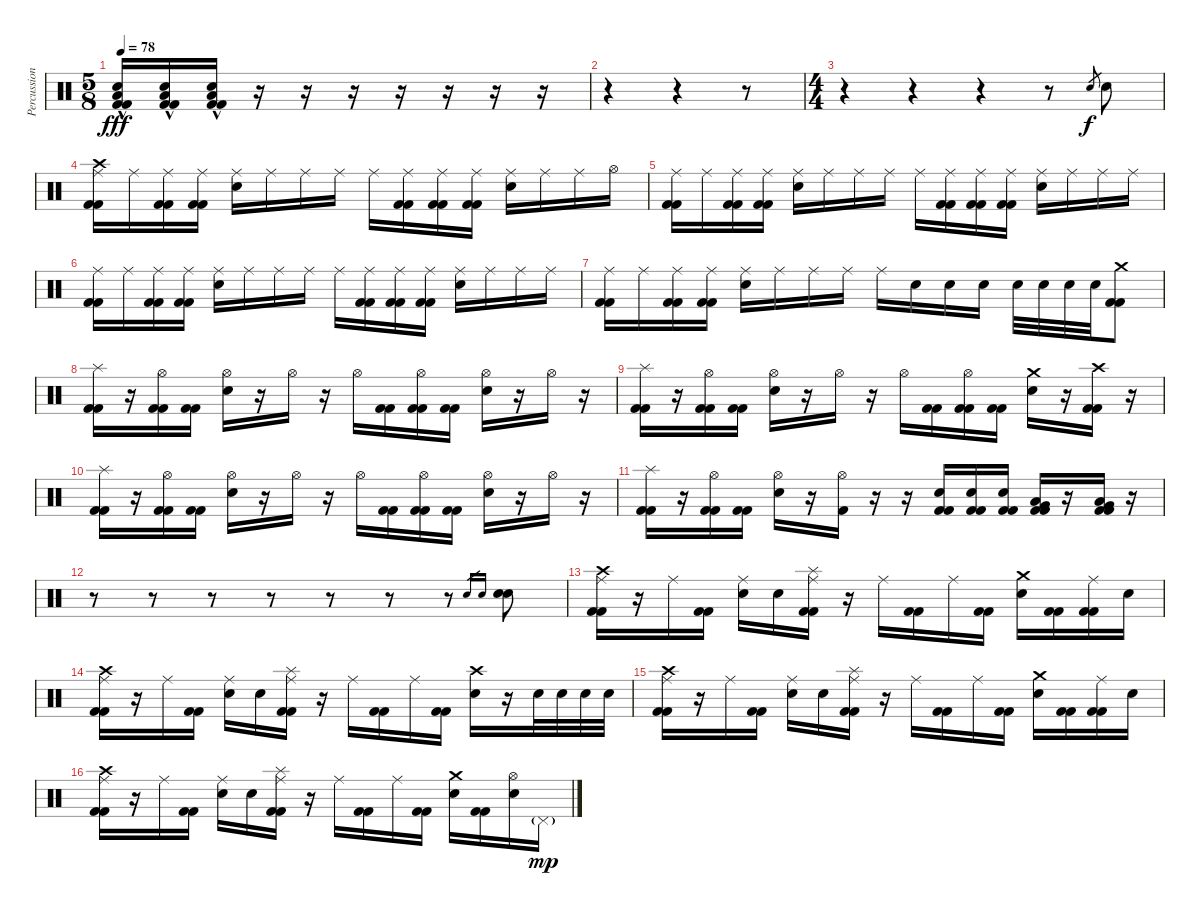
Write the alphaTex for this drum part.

\track ("Percussion" "Percussion") {instrument percussion}
\staff {score}
\articulation defaults
\ts (5 8)
\tempo 78
\clef neutral
\ks c
("Electric Snare (hit)" "Low Floor Tom (hit)" "Kick (hit) 2"{hac} "Kick (hit) 2"{hac}).16{dy fff} ("Electric Snare (hit)" "Low Floor Tom (hit)" "Kick (hit) 2"{hac} "Kick (hit) 2"{hac}).16 ("Electric Snare (hit)"{hac} "Low Floor Tom (hit)"{hac} "Kick (hit) 2"{hac} "Kick (hit) 2"{hac}).16 r.16 r.16 r.16 r.16 r.16 r.16 r.16 |
r.4 r.4 r.8 |
\ts (4 4)
r.4 r.4 r.4 r.8 "Electric Snare (hit)".8{gr dy f} "Electric Snare (hit)".8 |
("Crash high (hit)" "Ride (middle)" "Kick (hit) 2" "Kick (hit) 2").16 "Ride (middle)".16 ("Ride (middle)" "Kick (hit) 2" "Kick (hit) 2").16 ("Ride (middle)" "Kick (hit) 2" "Kick (hit) 2").16 ("Ride (middle)" "Electric Snare (hit)").16 "Ride (middle)".16 "Ride (middle)".16 "Ride (middle)".16 "Ride (middle)".16 ("Ride (middle)" "Kick (hit) 2" "Kick (hit) 2").16 ("Ride (middle)" "Kick (hit) 2" "Kick (hit) 2").16 ("Ride (middle)" "Kick (hit) 2" "Kick (hit) 2").16 ("Ride (middle)" "Electric Snare (hit)").16 "Ride (middle)".16 "Ride (middle)".16 "Hi-Hat (open)".16 |
("Ride (middle)" "Kick (hit) 2" "Kick (hit) 2").16 "Ride (middle)".16 ("Ride (middle)" "Kick (hit) 2" "Kick (hit) 2").16 ("Ride (middle)" "Kick (hit) 2" "Kick (hit) 2").16 ("Ride (middle)" "Electric Snare (hit)").16 "Ride (middle)".16 "Ride (middle)".16 "Ride (middle)".16 "Ride (middle)".16 ("Ride (middle)" "Kick (hit) 2" "Kick (hit) 2").16 ("Ride (middle)" "Kick (hit) 2" "Kick (hit) 2").16 ("Ride (middle)" "Kick (hit) 2" "Kick (hit) 2").16 ("Ride (middle)" "Electric Snare (hit)").16 "Ride (middle)".16 "Ride (middle)".16 "Ride (middle)".16 |
("Ride (middle)" "Kick (hit) 2" "Kick (hit) 2").16 "Ride (middle)".16 ("Ride (middle)" "Kick (hit) 2" "Kick (hit) 2").16 ("Ride (middle)" "Kick (hit) 2" "Kick (hit) 2").16 ("Ride (middle)" "Electric Snare (hit)").16 "Ride (middle)".16 "Ride (middle)".16 "Ride (middle)".16 "Ride (middle)".16 ("Ride (middle)" "Kick (hit) 2" "Kick (hit) 2").16 ("Ride (middle)" "Kick (hit) 2" "Kick (hit) 2").16 ("Ride (middle)" "Kick (hit) 2" "Kick (hit) 2").16 ("Ride (middle)" "Electric Snare (hit)").16 "Ride (middle)".16 "Ride (middle)".16 "Ride (middle)".16 |
("Ride (middle)" "Kick (hit) 2" "Kick (hit) 2").16 "Ride (middle)".16 ("Ride (middle)" "Kick (hit) 2" "Kick (hit) 2").16 ("Ride (middle)" "Kick (hit) 2" "Kick (hit) 2").16 ("Ride (middle)" "Electric Snare (hit)").16 "Ride (middle)".16 "Ride (middle)".16 "Ride (middle)".16 "Ride (middle)".16 "Electric Snare (hit)".16 "Electric Snare (hit)".16 "Electric Snare (hit)".16 "Electric Snare (hit)".32 "Electric Snare (hit)".32 "Electric Snare (hit)".32 "Electric Snare (hit)".32 ("Crash medium (hit)" "Kick (hit) 2" "Kick (hit) 2").8 |
("Splash (hit)" "Kick (hit) 2" "Kick (hit) 2").16 r.16 ("Hi-Hat (open)" "Kick (hit) 2" "Kick (hit) 2").16 ("Kick (hit) 2" "Kick (hit) 2").16 ("Hi-Hat (open)" "Electric Snare (hit)").16 r.16 "Hi-Hat (open)".16 r.16 "Hi-Hat (open)".16 ("Kick (hit) 2" "Kick (hit) 2").16 ("Hi-Hat (open)" "Kick (hit) 2" "Kick (hit) 2").16 ("Kick (hit) 2" "Kick (hit) 2").16 ("Hi-Hat (open)" "Electric Snare (hit)").16 r.16 "Hi-Hat (open)".16 r.16 |
("Splash (hit)" "Kick (hit) 2" "Kick (hit) 2").16 r.16 ("Hi-Hat (open)" "Kick (hit) 2" "Kick (hit) 2").16 ("Kick (hit) 2" "Kick (hit) 2").16 ("Hi-Hat (open)" "Electric Snare (hit)").16 r.16 "Hi-Hat (open)".16 r.16 "Hi-Hat (open)".16 ("Kick (hit) 2" "Kick (hit) 2").16 ("Hi-Hat (open)" "Kick (hit) 2" "Kick (hit) 2").16 ("Kick (hit) 2" "Kick (hit) 2").16 ("Crash medium (hit)" "Electric Snare (hit)").16 r.16 ("Crash high (hit)" "Kick (hit) 2" "Kick (hit) 2").16 r.16 |
("Splash (hit)" "Kick (hit) 2" "Kick (hit) 2").16 r.16 ("Hi-Hat (open)" "Kick (hit) 2" "Kick (hit) 2").16 ("Kick (hit) 2" "Kick (hit) 2").16 ("Hi-Hat (open)" "Electric Snare (hit)").16 r.16 "Hi-Hat (open)".16 r.16 "Hi-Hat (open)".16 ("Kick (hit) 2" "Kick (hit) 2").16 ("Hi-Hat (open)" "Kick (hit) 2" "Kick (hit) 2").16 ("Kick (hit) 2" "Kick (hit) 2").16 ("Hi-Hat (open)" "Electric Snare (hit)").16 r.16 "Hi-Hat (open)".16 r.16 |
("Splash (hit)" "Kick (hit) 2" "Kick (hit) 2").16 r.16 ("Hi-Hat (open)" "Kick (hit) 2" "Kick (hit) 2").16 ("Kick (hit) 2" "Kick (hit) 2").16 ("Hi-Hat (open)" "Electric Snare (hit)").16 r.16 ("Hi-Hat (open)" "Kick (hit) 2").16 r.16 r.16 ("Electric Snare (hit)" "Kick (hit) 2" "Kick (hit) 2").16 ("Electric Snare (hit)" "Kick (hit) 2" "Kick (hit) 2").16 ("Electric Snare (hit)" "Kick (hit) 2" "Kick (hit) 2").16 ("Low Tom (hit)" "Very Low Tom (hit)" "Kick (hit) 2" "Kick (hit) 2").16 r.16 ("Very Low Tom (hit)" "Low Floor Tom (hit)" "Kick (hit) 2" "Kick (hit) 2").16 r.16 |
r.8 r.8 r.8 r.8 r.8 r.8 r.8 "Electric Snare (hit)".16{gr} "Electric Snare (hit)".16{gr} ("Electric Snare (hit)" "Electric Snare (hit)").8 |
("Crash high (hit)" "Ride (middle)" "Kick (hit) 2" "Kick (hit) 2").16 r.16 "Ride (middle)".16 ("Kick (hit) 2" "Kick (hit) 2").16 ("Ride (middle)" "Electric Snare (hit)").16 "Electric Snare (hit)".16 ("Splash (hit)" "Ride (middle)" "Kick (hit) 2" "Kick (hit) 2").16 r.16 "Ride (middle)".16 ("Kick (hit) 2" "Kick (hit) 2").16 "Ride (middle)".16 ("Kick (hit) 2" "Kick (hit) 2").16 ("Crash medium (hit)" "Electric Snare (hit)").16 ("Kick (hit) 2" "Kick (hit) 2").16 ("Ride (middle)" "Kick (hit) 2" "Kick (hit) 2").16 "Electric Snare (hit)".16 |
("Crash high (hit)" "Ride (middle)" "Kick (hit) 2" "Kick (hit) 2").16 r.16 "Ride (middle)".16 ("Kick (hit) 2" "Kick (hit) 2").16 ("Ride (middle)" "Electric Snare (hit)").16 "Electric Snare (hit)".16 ("Splash (hit)" "Ride (middle)" "Kick (hit) 2" "Kick (hit) 2").16 r.16 "Ride (middle)".16 ("Kick (hit) 2" "Kick (hit) 2").16 "Ride (middle)".16 ("Kick (hit) 2" "Kick (hit) 2").16 ("Crash high (hit)" "Electric Snare (hit)").16 r.16 "Electric Snare (hit)".32 "Electric Snare (hit)".32 "Electric Snare (hit)".32 "Electric Snare (hit)".32 |
("Crash high (hit)" "Ride (middle)" "Kick (hit) 2" "Kick (hit) 2").16 r.16 "Ride (middle)".16 ("Kick (hit) 2" "Kick (hit) 2").16 ("Ride (middle)" "Electric Snare (hit)").16 "Electric Snare (hit)".16 ("Splash (hit)" "Ride (middle)" "Kick (hit) 2" "Kick (hit) 2").16 r.16 "Ride (middle)".16 ("Kick (hit) 2" "Kick (hit) 2").16 "Ride (middle)".16 ("Kick (hit) 2" "Kick (hit) 2").16 ("Crash medium (hit)" "Electric Snare (hit)").16 ("Kick (hit) 2" "Kick (hit) 2").16 ("Ride (middle)" "Kick (hit) 2" "Kick (hit) 2").16 "Electric Snare (hit)".16 |
("Crash high (hit)" "Ride (middle)" "Kick (hit) 2" "Kick (hit) 2").16 r.16 "Ride (middle)".16 ("Kick (hit) 2" "Kick (hit) 2").16 ("Ride (middle)" "Electric Snare (hit)").16 "Electric Snare (hit)".16 ("Splash (hit)" "Ride (middle)" "Kick (hit) 2" "Kick (hit) 2").16 r.16 "Ride (middle)".16 ("Kick (hit) 2" "Kick (hit) 2").16 "Ride (middle)".16 ("Kick (hit) 2" "Kick (hit) 2").16 ("Crash medium (hit)" "Electric Snare (hit)").16 ("Kick (hit) 2" "Kick (hit) 2").16 ("Hi-Hat (open)" "Electric Snare (hit)").16 "Pedal Hi-Hat (hit)"{g}.16{dy mp}
